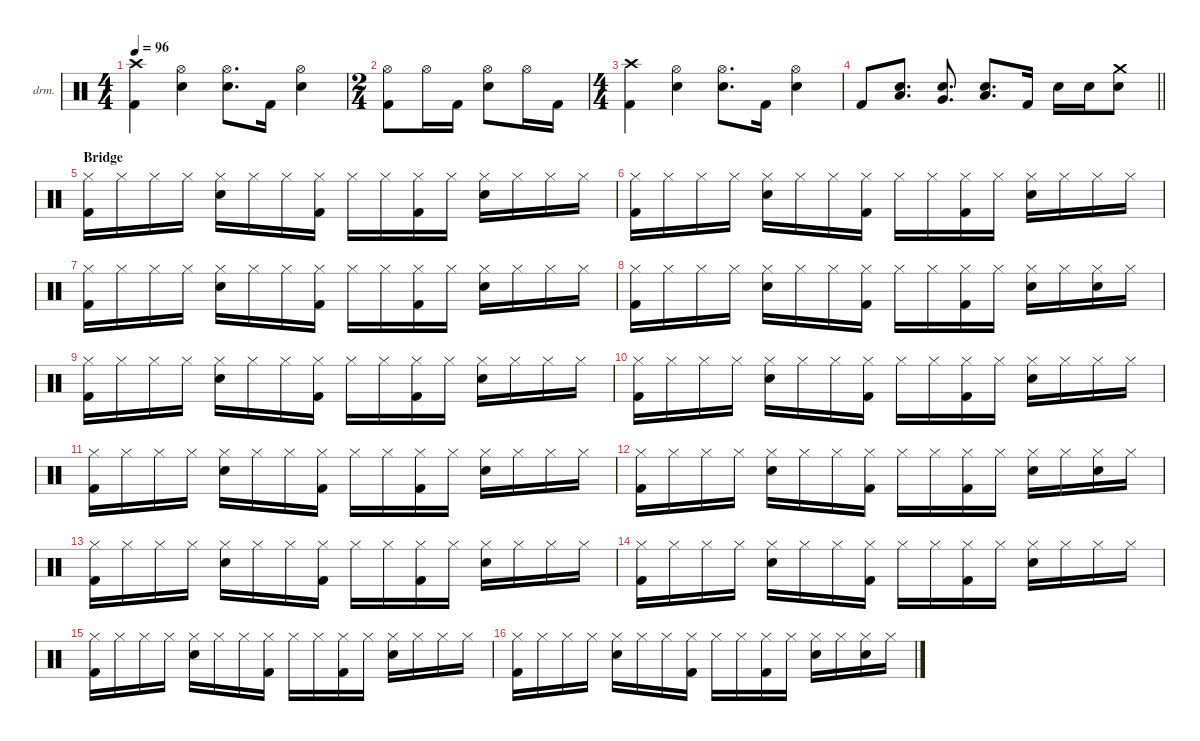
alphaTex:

\defaultSystemsLayout 4
\hideDynamics
\bracketExtendMode nobrackets
\firstSystemTrackNameOrientation horizontal
\otherSystemsTrackNameOrientation horizontal
\track ("Percussion" "drm.") {instrument percussion}
\staff {score}
\articulation defaults
\ts (4 4)
\beaming (8 2 2 2 2)
\tempo 96
\clef neutral
\ks c
("Crash high (hit)" "Kick (hit) 2").4{dy f} ("Hi-Hat (open)" "Snare (hit) 2").4 ("Hi-Hat (open)" "Snare (hit) 2").8{d} "Kick (hit) 2".16 ("Hi-Hat (open)" "Snare (hit) 2").4 |
\ts (2 4)
\beaming (8 2 2)
("Hi-Hat (open)" "Kick (hit) 2").8 "Hi-Hat (open)".16 "Kick (hit) 2".16 ("Hi-Hat (open)" "Snare (hit) 2").8 "Hi-Hat (open)".16 "Kick (hit) 2".16 |
\ts (4 4)
\beaming (8 2 2 2 2)
("Crash high (hit)" "Kick (hit) 2").4 ("Hi-Hat (open)" "Snare (hit) 2").4 ("Hi-Hat (open)" "Snare (hit) 2").8{d} "Kick (hit) 2".16 ("Hi-Hat (open)" "Snare (hit) 2").4 |
\barLineRight lightlight "Kick (hit) 2".8
("Snare (hit) 2" "Low Tom (hit)").8{d} ("Snare (hit) 2" "Very Low Tom (hit)").8{d} ("Snare (hit) 2" "Low Floor Tom (hit)").8{d} "Kick (hit) 2".16 "Snare (hit) 2".16 "Snare (hit) 2".16 ("Crash medium (hit)" "Snare (hit) 2").8 |
\section ("" "Bridge")
("Hi-Hat (closed)" "Kick (hit) 2").16{dy pp} "Hi-Hat (closed)".16 "Hi-Hat (closed)".16 "Hi-Hat (closed)".16 ("Hi-Hat (closed)" "Snare (hit) 2").16 "Hi-Hat (closed)".16 "Hi-Hat (closed)".16 ("Hi-Hat (closed)" "Kick (hit) 2").16 "Hi-Hat (closed)".16 "Hi-Hat (closed)".16 ("Hi-Hat (closed)" "Kick (hit) 2").16 "Hi-Hat (closed)".16 ("Hi-Hat (closed)" "Snare (hit) 2").16 "Hi-Hat (closed)".16 "Hi-Hat (closed)".16 "Hi-Hat (closed)".16 |
("Hi-Hat (closed)" "Kick (hit) 2").16 "Hi-Hat (closed)".16 "Hi-Hat (closed)".16 "Hi-Hat (closed)".16 ("Hi-Hat (closed)" "Snare (hit) 2").16 "Hi-Hat (closed)".16 "Hi-Hat (closed)".16 ("Hi-Hat (closed)" "Kick (hit) 2").16 "Hi-Hat (closed)".16 "Hi-Hat (closed)".16 ("Hi-Hat (closed)" "Kick (hit) 2").16 "Hi-Hat (closed)".16 ("Hi-Hat (closed)" "Snare (hit) 2").16 "Hi-Hat (closed)".16 "Hi-Hat (closed)".16 "Hi-Hat (closed)".16 |
("Hi-Hat (closed)" "Kick (hit) 2").16 "Hi-Hat (closed)".16 "Hi-Hat (closed)".16 "Hi-Hat (closed)".16 ("Hi-Hat (closed)" "Snare (hit) 2").16 "Hi-Hat (closed)".16 "Hi-Hat (closed)".16 ("Hi-Hat (closed)" "Kick (hit) 2").16 "Hi-Hat (closed)".16 "Hi-Hat (closed)".16 ("Hi-Hat (closed)" "Kick (hit) 2").16 "Hi-Hat (closed)".16 ("Hi-Hat (closed)" "Snare (hit) 2").16 "Hi-Hat (closed)".16 "Hi-Hat (closed)".16 "Hi-Hat (closed)".16 |
("Hi-Hat (closed)" "Kick (hit) 2").16 "Hi-Hat (closed)".16 "Hi-Hat (closed)".16 "Hi-Hat (closed)".16 ("Hi-Hat (closed)" "Snare (hit) 2").16 "Hi-Hat (closed)".16 "Hi-Hat (closed)".16 ("Hi-Hat (closed)" "Kick (hit) 2").16 "Hi-Hat (closed)".16 "Hi-Hat (closed)".16 ("Hi-Hat (closed)" "Kick (hit) 2").16 "Hi-Hat (closed)".16 ("Hi-Hat (closed)" "Snare (hit) 2").16 "Hi-Hat (closed)".16 ("Hi-Hat (closed)" "Snare (hit) 2").16 "Hi-Hat (closed)".16 |
("Hi-Hat (closed)" "Kick (hit) 2").16 "Hi-Hat (closed)".16 "Hi-Hat (closed)".16 "Hi-Hat (closed)".16 ("Hi-Hat (closed)" "Snare (hit) 2").16 "Hi-Hat (closed)".16 "Hi-Hat (closed)".16 ("Hi-Hat (closed)" "Kick (hit) 2").16 "Hi-Hat (closed)".16 "Hi-Hat (closed)".16 ("Hi-Hat (closed)" "Kick (hit) 2").16 "Hi-Hat (closed)".16 ("Hi-Hat (closed)" "Snare (hit) 2").16 "Hi-Hat (closed)".16 "Hi-Hat (closed)".16 "Hi-Hat (closed)".16 |
("Hi-Hat (closed)" "Kick (hit) 2").16 "Hi-Hat (closed)".16 "Hi-Hat (closed)".16 "Hi-Hat (closed)".16 ("Hi-Hat (closed)" "Snare (hit) 2").16 "Hi-Hat (closed)".16 "Hi-Hat (closed)".16 ("Hi-Hat (closed)" "Kick (hit) 2").16 "Hi-Hat (closed)".16 "Hi-Hat (closed)".16 ("Hi-Hat (closed)" "Kick (hit) 2").16 "Hi-Hat (closed)".16 ("Hi-Hat (closed)" "Snare (hit) 2").16 "Hi-Hat (closed)".16 "Hi-Hat (closed)".16 "Hi-Hat (closed)".16 |
("Hi-Hat (closed)" "Kick (hit) 2").16 "Hi-Hat (closed)".16 "Hi-Hat (closed)".16 "Hi-Hat (closed)".16 ("Hi-Hat (closed)" "Snare (hit) 2").16 "Hi-Hat (closed)".16 "Hi-Hat (closed)".16 ("Hi-Hat (closed)" "Kick (hit) 2").16 "Hi-Hat (closed)".16 "Hi-Hat (closed)".16 ("Hi-Hat (closed)" "Kick (hit) 2").16 "Hi-Hat (closed)".16 ("Hi-Hat (closed)" "Snare (hit) 2").16 "Hi-Hat (closed)".16 "Hi-Hat (closed)".16 "Hi-Hat (closed)".16 |
("Hi-Hat (closed)" "Kick (hit) 2").16 "Hi-Hat (closed)".16 "Hi-Hat (closed)".16 "Hi-Hat (closed)".16 ("Hi-Hat (closed)" "Snare (hit) 2").16 "Hi-Hat (closed)".16 "Hi-Hat (closed)".16 ("Hi-Hat (closed)" "Kick (hit) 2").16 "Hi-Hat (closed)".16 "Hi-Hat (closed)".16 ("Hi-Hat (closed)" "Kick (hit) 2").16 "Hi-Hat (closed)".16 ("Hi-Hat (closed)" "Snare (hit) 2").16 "Hi-Hat (closed)".16 ("Hi-Hat (closed)" "Snare (hit) 2").16 "Hi-Hat (closed)".16 |
("Hi-Hat (closed)" "Kick (hit) 2").16 "Hi-Hat (closed)".16 "Hi-Hat (closed)".16 "Hi-Hat (closed)".16 ("Hi-Hat (closed)" "Snare (hit) 2").16 "Hi-Hat (closed)".16 "Hi-Hat (closed)".16 ("Hi-Hat (closed)" "Kick (hit) 2").16 "Hi-Hat (closed)".16 "Hi-Hat (closed)".16 ("Hi-Hat (closed)" "Kick (hit) 2").16 "Hi-Hat (closed)".16 ("Hi-Hat (closed)" "Snare (hit) 2").16 "Hi-Hat (closed)".16 "Hi-Hat (closed)".16 "Hi-Hat (closed)".16 |
("Hi-Hat (closed)" "Kick (hit) 2").16 "Hi-Hat (closed)".16 "Hi-Hat (closed)".16 "Hi-Hat (closed)".16 ("Hi-Hat (closed)" "Snare (hit) 2").16 "Hi-Hat (closed)".16 "Hi-Hat (closed)".16 ("Hi-Hat (closed)" "Kick (hit) 2").16 "Hi-Hat (closed)".16 "Hi-Hat (closed)".16 ("Hi-Hat (closed)" "Kick (hit) 2").16 "Hi-Hat (closed)".16 ("Hi-Hat (closed)" "Snare (hit) 2").16 "Hi-Hat (closed)".16 "Hi-Hat (closed)".16 "Hi-Hat (closed)".16 |
("Hi-Hat (closed)" "Kick (hit) 2").16 "Hi-Hat (closed)".16 "Hi-Hat (closed)".16 "Hi-Hat (closed)".16 ("Hi-Hat (closed)" "Snare (hit) 2").16 "Hi-Hat (closed)".16 "Hi-Hat (closed)".16 ("Hi-Hat (closed)" "Kick (hit) 2").16 "Hi-Hat (closed)".16 "Hi-Hat (closed)".16 ("Hi-Hat (closed)" "Kick (hit) 2").16 "Hi-Hat (closed)".16 ("Hi-Hat (closed)" "Snare (hit) 2").16 "Hi-Hat (closed)".16 "Hi-Hat (closed)".16 "Hi-Hat (closed)".16 |
("Hi-Hat (closed)" "Kick (hit) 2").16 "Hi-Hat (closed)".16 "Hi-Hat (closed)".16 "Hi-Hat (closed)".16 ("Hi-Hat (closed)" "Snare (hit) 2").16 "Hi-Hat (closed)".16 "Hi-Hat (closed)".16 ("Hi-Hat (closed)" "Kick (hit) 2").16 "Hi-Hat (closed)".16 "Hi-Hat (closed)".16 ("Hi-Hat (closed)" "Kick (hit) 2").16 "Hi-Hat (closed)".16 ("Hi-Hat (closed)" "Snare (hit) 2").16 "Hi-Hat (closed)".16 ("Hi-Hat (closed)" "Snare (hit) 2").16 "Hi-Hat (closed)".16
